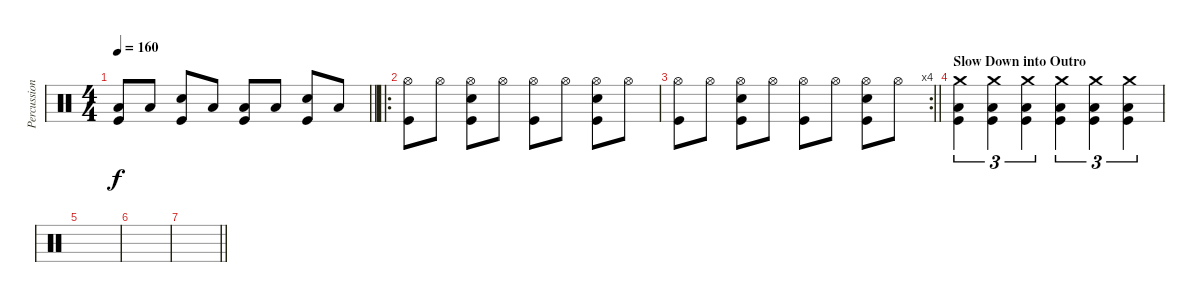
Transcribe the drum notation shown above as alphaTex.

\track ("Percussion" "Percussion") {instrument percussion}
\staff {score}
\articulation defaults
\ts (4 4)
\tempo 160
\clef neutral
\barLineRight lightlight
\ks c
("Low Floor Tom (hit)" "Kick (hit)").8{dy f} "Low Floor Tom (hit)".8 ("Snare (hit) 2" "Kick (hit)").8 "Low Floor Tom (hit)".8 ("Low Floor Tom (hit)" "Kick (hit)").8 "Low Floor Tom (hit)".8 ("Snare (hit) 2" "Kick (hit)").8 "Low Floor Tom (hit)".8 |
\ro
("Hi-Hat (open)" "Kick (hit)").8 "Hi-Hat (open)".8 ("Hi-Hat (open)" "Snare (hit) 2" "Kick (hit)").8 "Hi-Hat (open)".8 ("Hi-Hat (open)" "Kick (hit)").8 "Hi-Hat (open)".8 ("Hi-Hat (open)" "Snare (hit) 2" "Kick (hit)").8 "Hi-Hat (open)".8 |
\rc 4
\barLineRight lightlight
("Hi-Hat (open)" "Kick (hit)").8 "Hi-Hat (open)".8 ("Hi-Hat (open)" "Snare (hit) 2" "Kick (hit)").8 "Hi-Hat (open)".8 ("Hi-Hat (open)" "Kick (hit)").8 "Hi-Hat (open)".8 ("Hi-Hat (open)" "Snare (hit) 2" "Kick (hit)").8 "Hi-Hat (open)".8 |
\section ("" "Slow Down into Outro")
("Crash medium (hit)" "Low Floor Tom (hit)" "Kick (hit)").4{tu (3 2)} ("Crash medium (hit)" "Low Floor Tom (hit)" "Kick (hit)").4{tu (3 2)} ("Crash medium (hit)" "Low Floor Tom (hit)" "Kick (hit)").4{tu (3 2)} ("Crash medium (hit)" "Low Floor Tom (hit)" "Kick (hit)").4{tu (3 2)} ("Crash medium (hit)" "Low Floor Tom (hit)" "Kick (hit)").4{tu (3 2)} ("Crash medium (hit)" "Low Floor Tom (hit)" "Kick (hit)").4{tu (3 2)} |
|
|
\barLineRight lightlight
